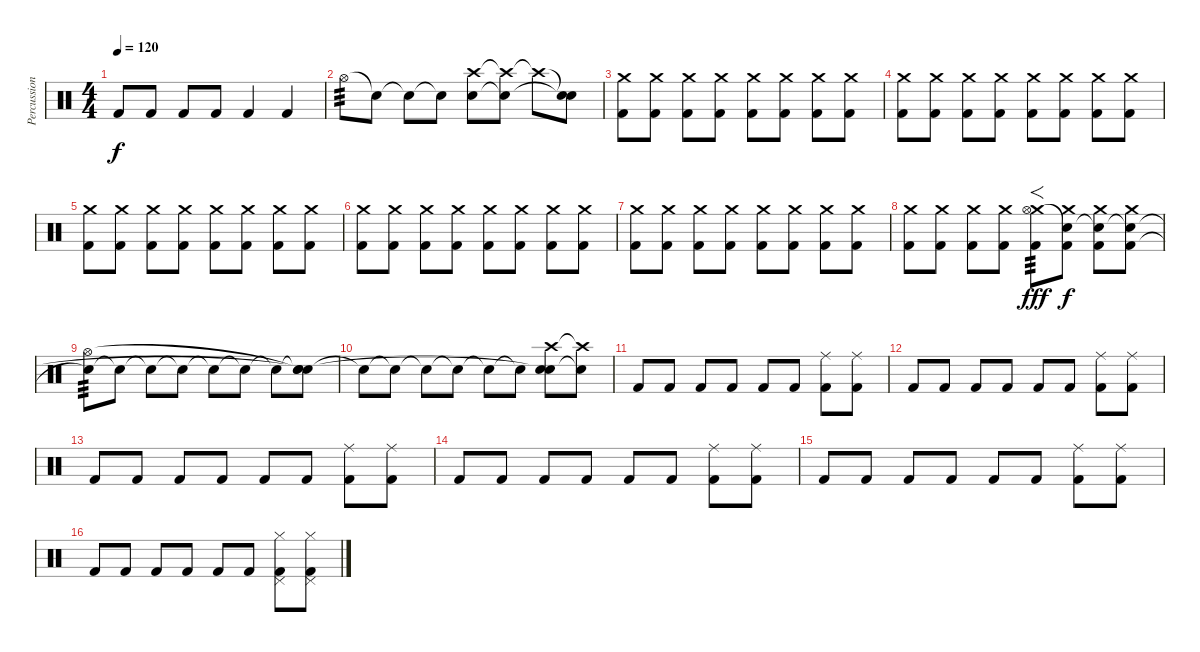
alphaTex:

\track ("Percussioni" "Percussion") {instrument percussion}
\staff {score}
\articulation defaults
\ts (4 4)
\tempo 120
\clef neutral
\ks c "Kick (hit) 2".8{dy f} "Kick (hit) 2".8 "Kick (hit) 2".8 "Kick (hit) 2".8 "Kick (hit) 2".4 "Kick (hit) 2".4
|
"Hi-Hat (open)".8{tp 3} "Snare (hit)"{t}.8 "Snare (hit)"{t}.8 "Snare (hit)"{t}.8 ("Crash high (hit)" "Snare (hit)"{t}).8 ("Crash high (hit)"{t} "Snare (hit)"{t}).8 "Crash high (hit)"{t}.8 ("Snare (hit)"{t} "Snare (hit)"{t}).8 |
("Kick (hit) 2" "Crash medium (hit)").8 ("Kick (hit) 2" "Crash medium (hit)").8 ("Kick (hit) 2" "Crash medium (hit)").8 ("Kick (hit) 2" "Crash medium (hit)").8 ("Kick (hit) 2" "Crash medium (hit)").8 ("Kick (hit) 2" "Crash medium (hit)").8 ("Kick (hit) 2" "Crash medium (hit)").8 ("Kick (hit) 2" "Crash medium (hit)").8 |
("Kick (hit) 2" "Crash medium (hit)").8 ("Kick (hit) 2" "Crash medium (hit)").8 ("Kick (hit) 2" "Crash medium (hit)").8 ("Kick (hit) 2" "Crash medium (hit)").8 ("Kick (hit) 2" "Crash medium (hit)").8 ("Kick (hit) 2" "Crash medium (hit)").8 ("Kick (hit) 2" "Crash medium (hit)").8 ("Kick (hit) 2" "Crash medium (hit)").8 |
("Kick (hit) 2" "Crash medium (hit)").8 ("Kick (hit) 2" "Crash medium (hit)").8 ("Kick (hit) 2" "Crash medium (hit)").8 ("Kick (hit) 2" "Crash medium (hit)").8 ("Kick (hit) 2" "Crash medium (hit)").8 ("Kick (hit) 2" "Crash medium (hit)").8 ("Kick (hit) 2" "Crash medium (hit)").8 ("Kick (hit) 2" "Crash medium (hit)").8 |
("Kick (hit) 2" "Crash medium (hit)").8 ("Kick (hit) 2" "Crash medium (hit)").8 ("Kick (hit) 2" "Crash medium (hit)").8 ("Kick (hit) 2" "Crash medium (hit)").8 ("Kick (hit) 2" "Crash medium (hit)").8 ("Kick (hit) 2" "Crash medium (hit)").8 ("Kick (hit) 2" "Crash medium (hit)").8 ("Kick (hit) 2" "Crash medium (hit)").8 |
("Kick (hit) 2" "Crash medium (hit)").8 ("Kick (hit) 2" "Crash medium (hit)").8 ("Kick (hit) 2" "Crash medium (hit)").8 ("Kick (hit) 2" "Crash medium (hit)").8 ("Kick (hit) 2" "Crash medium (hit)").8 ("Kick (hit) 2" "Crash medium (hit)").8 ("Kick (hit) 2" "Crash medium (hit)").8 ("Kick (hit) 2" "Crash medium (hit)").8 |
("Kick (hit) 2" "Crash medium (hit)").8 ("Kick (hit) 2" "Crash medium (hit)").8 ("Kick (hit) 2" "Crash medium (hit)").8 ("Kick (hit) 2" "Crash medium (hit)").8 ("Kick (hit) 2" "Crash medium (hit)" "Hi-Hat (open)").8{f tp 3 dy fff} ("Kick (hit) 2" "Crash medium (hit)" "Snare (hit)"{t}).8{dy f} ("Kick (hit) 2" "Crash medium (hit)" "Snare (hit)"{t}).8 ("Kick (hit) 2" "Crash medium (hit)" "Snare (hit)"{t}).8 |
("Snare (hit)"{t} "Hi-Hat (open)").8{tp 3} "Snare (hit)"{t}.8 "Snare (hit)"{t}.8 "Snare (hit)"{t}.8 "Snare (hit)"{t}.8 "Snare (hit)"{t}.8 "Snare (hit)"{t}.8 ("Snare (hit)"{t} "Snare (hit)"{t} "Snare (hit)"{t}).8 |
"Snare (hit)"{t}.8 "Snare (hit)"{t}.8 "Snare (hit)"{t}.8 "Snare (hit)"{t}.8 "Snare (hit)"{t}.8 "Snare (hit)"{t}.8 ("Crash high (hit)" "Snare (hit) 2" "Snare (hit)"{t}).8 ("Crash high (hit)"{t} "Snare (hit)"{t}).8 |
"Kick (hit) 2".8 "Kick (hit) 2".8 "Kick (hit) 2".8 "Kick (hit) 2".8 "Kick (hit) 2".8 "Kick (hit) 2".8 ("Kick (hit) 2" "Ride (middle)").8 ("Kick (hit) 2" "Ride (middle)").8 |
"Kick (hit) 2".8 "Kick (hit) 2".8 "Kick (hit) 2".8 "Kick (hit) 2".8 "Kick (hit) 2".8 "Kick (hit) 2".8 ("Kick (hit) 2" "Ride (middle)").8 ("Kick (hit) 2" "Ride (middle)").8 |
"Kick (hit) 2".8 "Kick (hit) 2".8 "Kick (hit) 2".8 "Kick (hit) 2".8 "Kick (hit) 2".8 "Kick (hit) 2".8 ("Kick (hit) 2" "Ride (middle)").8 ("Kick (hit) 2" "Ride (middle)").8 |
"Kick (hit) 2".8 "Kick (hit) 2".8 "Kick (hit) 2".8 "Kick (hit) 2".8 "Kick (hit) 2".8 "Kick (hit) 2".8 ("Kick (hit) 2" "Ride (middle)").8 ("Kick (hit) 2" "Ride (middle)").8 |
"Kick (hit) 2".8 "Kick (hit) 2".8 "Kick (hit) 2".8 "Kick (hit) 2".8 "Kick (hit) 2".8 "Kick (hit) 2".8 ("Kick (hit) 2" "Ride (middle)").8 ("Kick (hit) 2" "Ride (middle)").8 |
"Kick (hit) 2".8 "Kick (hit) 2".8 "Kick (hit) 2".8 "Kick (hit) 2".8 "Kick (hit) 2".8 "Kick (hit) 2".8 ("Kick (hit) 2" "Pedal Hi-Hat (hit)" "Hi-Hat (closed)").8 ("Kick (hit) 2" "Pedal Hi-Hat (hit)" "Hi-Hat (closed)").8
